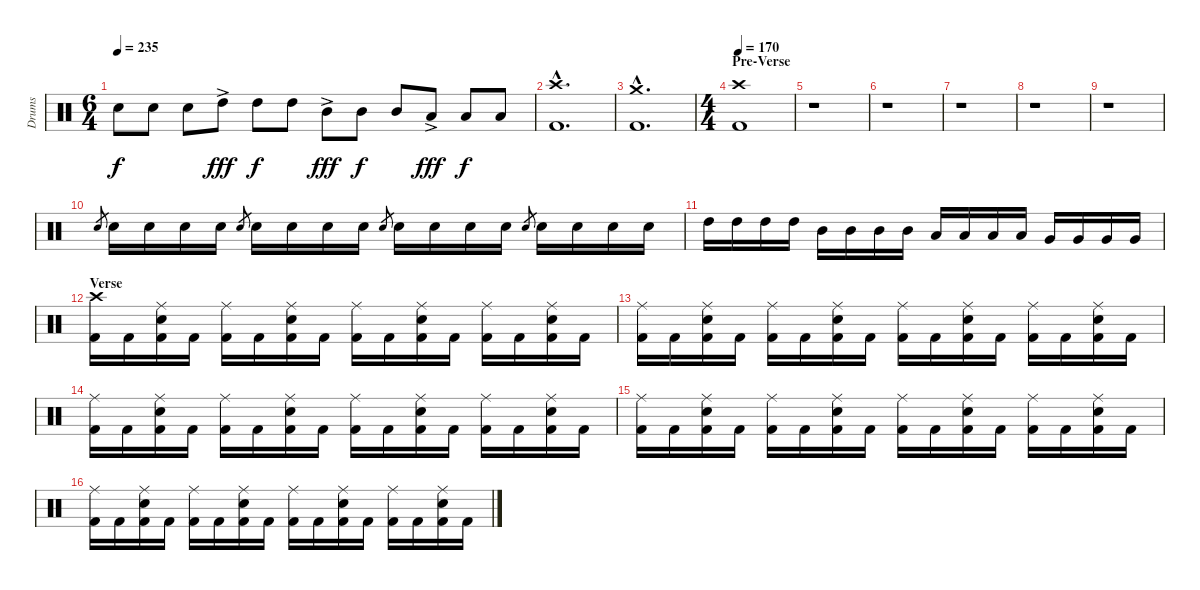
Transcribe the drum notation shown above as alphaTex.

\track ("Drums" "Drums") {instrument percussion}
\staff {score}
\articulation defaults
\ts (6 4)
\tempo 235
\clef neutral
\ks c "Snare (hit) 2".8{dy f} "Snare (hit) 2".8 "Snare (hit) 2".8 "High Tom (hit)"{ac}.8{dy fff} "High Tom (hit)".8{dy f} "High Tom (hit)".8 "Mid Tom (hit)"{ac}.8{dy fff} "Mid Tom (hit)".8{dy f} "Mid Tom (hit)".8 "Low Tom (hit)"{ac}.8{dy fff} "Low Tom (hit)".8{dy f} "Low Tom (hit)".8
|
("Crash high (hit)"{hac} "Kick (hit) 2"{hac}).1{d} |
("Crash medium (hit)"{hac} "Kick (hit) 2"{hac}).1{d} |
\ts (4 4)
\section ("" "Pre-Verse")
\tempo 170
("Crash high (hit)" "Kick (hit) 2").1 |
r.1 |
r.1 |
r.1 |
r.1 |
r.1 |
"Snare (hit) 2".8{gr} "Snare (hit) 2".16 "Snare (hit) 2".16 "Snare (hit) 2".16 "Snare (hit) 2".16 "Snare (hit) 2".8{gr} "Snare (hit) 2".16 "Snare (hit) 2".16 "Snare (hit) 2".16 "Snare (hit) 2".16 "Snare (hit) 2".8{gr} "Snare (hit) 2".16 "Snare (hit) 2".16 "Snare (hit) 2".16 "Snare (hit) 2".16 "Snare (hit) 2".8{gr} "Snare (hit) 2".16 "Snare (hit) 2".16 "Snare (hit) 2".16 "Snare (hit) 2".16 |
"High Tom (hit)".16 "High Tom (hit)".16 "High Tom (hit)".16 "High Tom (hit)".16 "Mid Tom (hit)".16 "Mid Tom (hit)".16 "Mid Tom (hit)".16 "Mid Tom (hit)".16 "Low Tom (hit)".16 "Low Tom (hit)".16 "Low Tom (hit)".16 "Low Tom (hit)".16 "Very Low Tom (hit)".16 "Very Low Tom (hit)".16 "Very Low Tom (hit)".16 "Very Low Tom (hit)".16 |
\section ("" "Verse")
("Crash high (hit)" "Kick (hit) 2").16 "Kick (hit) 2".16 ("Ride (middle)" "Snare (hit) 2" "Kick (hit) 2").16 "Kick (hit) 2".16 ("Ride (middle)" "Kick (hit) 2").16 "Kick (hit) 2".16 ("Ride (middle)" "Snare (hit) 2" "Kick (hit) 2").16 "Kick (hit) 2".16 ("Ride (middle)" "Kick (hit) 2").16 "Kick (hit) 2".16 ("Ride (middle)" "Snare (hit) 2" "Kick (hit) 2").16 "Kick (hit) 2".16 ("Ride (middle)" "Kick (hit) 2").16 "Kick (hit) 2".16 ("Ride (middle)" "Snare (hit) 2" "Kick (hit) 2").16 "Kick (hit) 2".16 |
("Ride (middle)" "Kick (hit) 2").16 "Kick (hit) 2".16 ("Ride (middle)" "Snare (hit) 2" "Kick (hit) 2").16 "Kick (hit) 2".16 ("Ride (middle)" "Kick (hit) 2").16 "Kick (hit) 2".16 ("Ride (middle)" "Snare (hit) 2" "Kick (hit) 2").16 "Kick (hit) 2".16 ("Ride (middle)" "Kick (hit) 2").16 "Kick (hit) 2".16 ("Ride (middle)" "Snare (hit) 2" "Kick (hit) 2").16 "Kick (hit) 2".16 ("Ride (middle)" "Kick (hit) 2").16 "Kick (hit) 2".16 ("Ride (middle)" "Snare (hit) 2" "Kick (hit) 2").16 "Kick (hit) 2".16 |
("Ride (middle)" "Kick (hit) 2").16 "Kick (hit) 2".16 ("Ride (middle)" "Snare (hit) 2" "Kick (hit) 2").16 "Kick (hit) 2".16 ("Ride (middle)" "Kick (hit) 2").16 "Kick (hit) 2".16 ("Ride (middle)" "Snare (hit) 2" "Kick (hit) 2").16 "Kick (hit) 2".16 ("Ride (middle)" "Kick (hit) 2").16 "Kick (hit) 2".16 ("Ride (middle)" "Snare (hit) 2" "Kick (hit) 2").16 "Kick (hit) 2".16 ("Ride (middle)" "Kick (hit) 2").16 "Kick (hit) 2".16 ("Ride (middle)" "Snare (hit) 2" "Kick (hit) 2").16 "Kick (hit) 2".16 |
("Ride (middle)" "Kick (hit) 2").16 "Kick (hit) 2".16 ("Ride (middle)" "Snare (hit) 2" "Kick (hit) 2").16 "Kick (hit) 2".16 ("Ride (middle)" "Kick (hit) 2").16 "Kick (hit) 2".16 ("Ride (middle)" "Snare (hit) 2" "Kick (hit) 2").16 "Kick (hit) 2".16 ("Ride (middle)" "Kick (hit) 2").16 "Kick (hit) 2".16 ("Ride (middle)" "Snare (hit) 2" "Kick (hit) 2").16 "Kick (hit) 2".16 ("Ride (middle)" "Kick (hit) 2").16 "Kick (hit) 2".16 ("Ride (middle)" "Snare (hit) 2" "Kick (hit) 2").16 "Kick (hit) 2".16 |
("Ride (middle)" "Kick (hit) 2").16 "Kick (hit) 2".16 ("Ride (middle)" "Snare (hit) 2" "Kick (hit) 2").16 "Kick (hit) 2".16 ("Ride (middle)" "Kick (hit) 2").16 "Kick (hit) 2".16 ("Ride (middle)" "Snare (hit) 2" "Kick (hit) 2").16 "Kick (hit) 2".16 ("Ride (middle)" "Kick (hit) 2").16 "Kick (hit) 2".16 ("Ride (middle)" "Snare (hit) 2" "Kick (hit) 2").16 "Kick (hit) 2".16 ("Ride (middle)" "Kick (hit) 2").16 "Kick (hit) 2".16 ("Ride (middle)" "Snare (hit) 2" "Kick (hit) 2").16 "Kick (hit) 2".16
